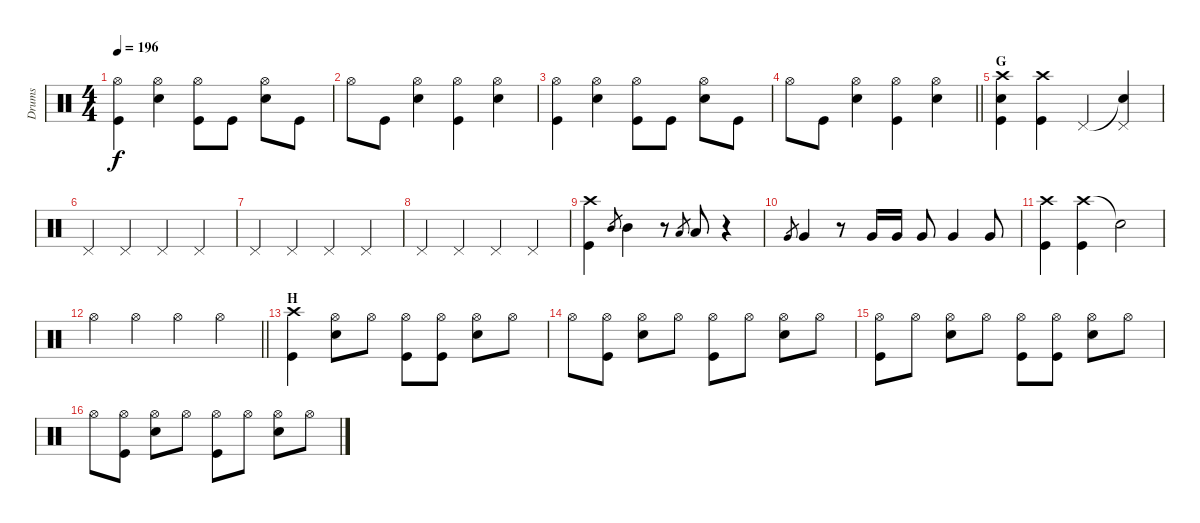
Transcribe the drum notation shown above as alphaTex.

\track ("Drums" "Drums") {instrument percussion}
\staff {score}
\articulation defaults
\ts (4 4)
\tempo 196
\clef neutral
\ks c
("Hi-Hat (open)" "Kick (hit)").4{dy f} ("Hi-Hat (open)" "Electric Snare (hit)").4 ("Hi-Hat (open)" "Kick (hit)").8 "Kick (hit)".8 ("Hi-Hat (open)" "Electric Snare (hit)").8 "Kick (hit)".8 |
"Hi-Hat (open)".8 "Kick (hit)".8 ("Hi-Hat (open)" "Electric Snare (hit)").4 ("Hi-Hat (open)" "Kick (hit)").4 ("Hi-Hat (open)" "Electric Snare (hit)").4 |
("Hi-Hat (open)" "Kick (hit)").4 ("Hi-Hat (open)" "Electric Snare (hit)").4 ("Hi-Hat (open)" "Kick (hit)").8 "Kick (hit)".8 ("Hi-Hat (open)" "Electric Snare (hit)").8 "Kick (hit)".8 |
\barLineRight lightlight "Hi-Hat (open)".8 "Kick (hit)".8
("Hi-Hat (open)" "Electric Snare (hit)").4 ("Hi-Hat (open)" "Kick (hit)").4 ("Hi-Hat (open)" "Electric Snare (hit)").4 |
\section ("" "G")
("Crash high (hit)" "Electric Snare (hit)" "Kick (hit)").4 ("Crash high (hit)" "Kick (hit)").4 "Pedal Hi-Hat (hit)".4 ("Snare (hit)"{t} "Pedal Hi-Hat (hit)").4 |
"Pedal Hi-Hat (hit)".4 "Pedal Hi-Hat (hit)".4 "Pedal Hi-Hat (hit)".4 "Pedal Hi-Hat (hit)".4 |
"Pedal Hi-Hat (hit)".4 "Pedal Hi-Hat (hit)".4 "Pedal Hi-Hat (hit)".4 "Pedal Hi-Hat (hit)".4 |
"Pedal Hi-Hat (hit)".4 "Pedal Hi-Hat (hit)".4 "Pedal Hi-Hat (hit)".4 "Pedal Hi-Hat (hit)".4 |
("Crash high (hit)" "Kick (hit)").4 "Mid Tom (hit)".8{gr} "Mid Tom (hit)".4 r.8 "Low Tom (hit)".8{gr} "Low Tom (hit)".8 r.4 |
"Very Low Tom (hit)".8{gr} "Very Low Tom (hit)".4 r.8 "Very Low Tom (hit)".16 "Very Low Tom (hit)".16 "Very Low Tom (hit)".8 "Very Low Tom (hit)".4 "Very Low Tom (hit)".8 |
("Crash high (hit)" "Kick (hit)").4 ("Crash high (hit)" "Kick (hit)").4 "Snare (hit)"{t}.2 |
\barLineRight lightlight "Hi-Hat (open)".4 "Hi-Hat (open)".4 "Hi-Hat (open)".4 "Hi-Hat (open)".4
|
\section ("" "H")
("Crash high (hit)" "Kick (hit)").4 ("Hi-Hat (open)" "Electric Snare (hit)").8 "Hi-Hat (open)".8 ("Hi-Hat (open)" "Kick (hit)").8 ("Hi-Hat (open)" "Kick (hit)").8 ("Hi-Hat (open)" "Electric Snare (hit)").8 "Hi-Hat (open)".8 |
"Hi-Hat (open)".8 ("Hi-Hat (open)" "Kick (hit)").8 ("Hi-Hat (open)" "Electric Snare (hit)").8 "Hi-Hat (open)".8 ("Hi-Hat (open)" "Kick (hit)").8 "Hi-Hat (open)".8 ("Hi-Hat (open)" "Electric Snare (hit)").8 "Hi-Hat (open)".8 |
("Hi-Hat (open)" "Kick (hit)").8 "Hi-Hat (open)".8 ("Hi-Hat (open)" "Electric Snare (hit)").8 "Hi-Hat (open)".8 ("Hi-Hat (open)" "Kick (hit)").8 ("Hi-Hat (open)" "Kick (hit)").8 ("Hi-Hat (open)" "Electric Snare (hit)").8 "Hi-Hat (open)".8 |
"Hi-Hat (open)".8 ("Hi-Hat (open)" "Kick (hit)").8 ("Hi-Hat (open)" "Electric Snare (hit)").8 "Hi-Hat (open)".8 ("Hi-Hat (open)" "Kick (hit)").8 "Hi-Hat (open)".8 ("Hi-Hat (open)" "Electric Snare (hit)").8 "Hi-Hat (open)".8
